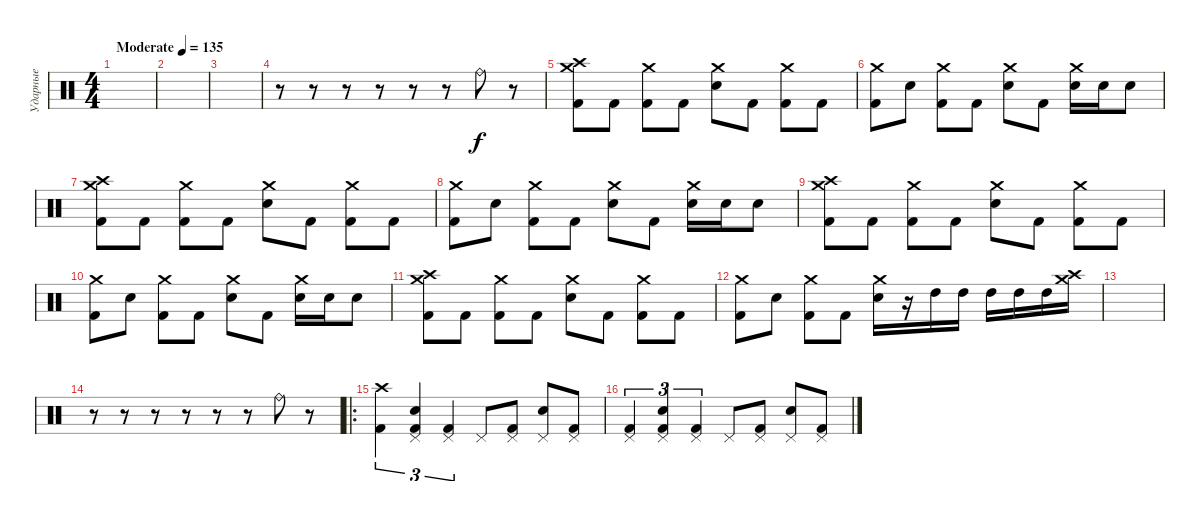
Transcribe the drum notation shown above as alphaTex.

\track ("Ударные" "Ударные") {instrument percussion}
\staff {score}
\articulation defaults
\ts (4 4)
\tempo (135 "Moderate")
\clef neutral
\ks c
|
|
|
r.8 r.8 r.8 r.8 r.8 r.8 "Ride (bell)".8 r.8 |
("Kick (hit) 2" "Crash medium (hit)" "Crash high (hit)").8 "Kick (hit) 2".8 ("Kick (hit) 2" "Crash medium (hit)").8 "Kick (hit) 2".8 ("Electric Snare (hit)" "Crash medium (hit)").8 "Kick (hit) 2".8 ("Kick (hit) 2" "Crash medium (hit)").8 "Kick (hit) 2".8 |
("Kick (hit) 2" "Crash medium (hit)").8 "Electric Snare (hit)".8 ("Kick (hit) 2" "Crash medium (hit)").8 "Kick (hit) 2".8 ("Electric Snare (hit)" "Crash medium (hit)").8 "Kick (hit) 2".8 ("Electric Snare (hit)" "Crash medium (hit)").16 "Electric Snare (hit)".16 "Electric Snare (hit)".8 |
("Kick (hit) 2" "Crash medium (hit)" "Crash high (hit)").8 "Kick (hit) 2".8 ("Kick (hit) 2" "Crash medium (hit)").8 "Kick (hit) 2".8 ("Electric Snare (hit)" "Crash medium (hit)").8 "Kick (hit) 2".8 ("Kick (hit) 2" "Crash medium (hit)").8 "Kick (hit) 2".8 |
("Kick (hit) 2" "Crash medium (hit)").8 "Electric Snare (hit)".8 ("Kick (hit) 2" "Crash medium (hit)").8 "Kick (hit) 2".8 ("Electric Snare (hit)" "Crash medium (hit)").8 "Kick (hit) 2".8 ("Electric Snare (hit)" "Crash medium (hit)").16 "Electric Snare (hit)".16 "Electric Snare (hit)".8 |
("Kick (hit) 2" "Crash medium (hit)" "Crash high (hit)").8 "Kick (hit) 2".8 ("Kick (hit) 2" "Crash medium (hit)").8 "Kick (hit) 2".8 ("Electric Snare (hit)" "Crash medium (hit)").8 "Kick (hit) 2".8 ("Kick (hit) 2" "Crash medium (hit)").8 "Kick (hit) 2".8 |
("Kick (hit) 2" "Crash medium (hit)").8 "Electric Snare (hit)".8 ("Kick (hit) 2" "Crash medium (hit)").8 "Kick (hit) 2".8 ("Electric Snare (hit)" "Crash medium (hit)").8 "Kick (hit) 2".8 ("Electric Snare (hit)" "Crash medium (hit)").16 "Electric Snare (hit)".16 "Electric Snare (hit)".8 |
("Kick (hit) 2" "Crash medium (hit)" "Crash high (hit)").8 "Kick (hit) 2".8 ("Kick (hit) 2" "Crash medium (hit)").8 "Kick (hit) 2".8 ("Electric Snare (hit)" "Crash medium (hit)").8 "Kick (hit) 2".8 ("Kick (hit) 2" "Crash medium (hit)").8 "Kick (hit) 2".8 |
("Kick (hit) 2" "Crash medium (hit)").8 "Electric Snare (hit)".8 ("Kick (hit) 2" "Crash medium (hit)").8 "Kick (hit) 2".8 ("Electric Snare (hit)" "Crash medium (hit)").16 r.16 "High Tom (hit)".16 "High Tom (hit)".16 "High Tom (hit)".16 "High Tom (hit)".16 "High Tom (hit)".16 ("Crash medium (hit)" "Crash high (hit)").16 |
|
r.8 r.8 r.8 r.8 r.8 r.8 "Ride (bell)".8 r.8 |
\ro
("Kick (hit) 2" "Crash high (hit)").4{tu (3 2)} ("Kick (hit) 2" "Electric Snare (hit)" "Pedal Hi-Hat (hit)").4{tu (3 2)} ("Kick (hit) 2" "Pedal Hi-Hat (hit)").4{tu (3 2)} "Pedal Hi-Hat (hit)".8 ("Kick (hit) 2" "Pedal Hi-Hat (hit)").8 ("Electric Snare (hit)" "Pedal Hi-Hat (hit)").8 ("Kick (hit) 2" "Pedal Hi-Hat (hit)").8 |
("Kick (hit) 2" "Pedal Hi-Hat (hit)").4{tu (3 2)} ("Kick (hit) 2" "Electric Snare (hit)" "Pedal Hi-Hat (hit)").4{tu (3 2)} ("Kick (hit) 2" "Pedal Hi-Hat (hit)").4{tu (3 2)} "Pedal Hi-Hat (hit)".8 ("Kick (hit) 2" "Pedal Hi-Hat (hit)").8 ("Electric Snare (hit)" "Pedal Hi-Hat (hit)").8 ("Kick (hit) 2" "Pedal Hi-Hat (hit)").8
